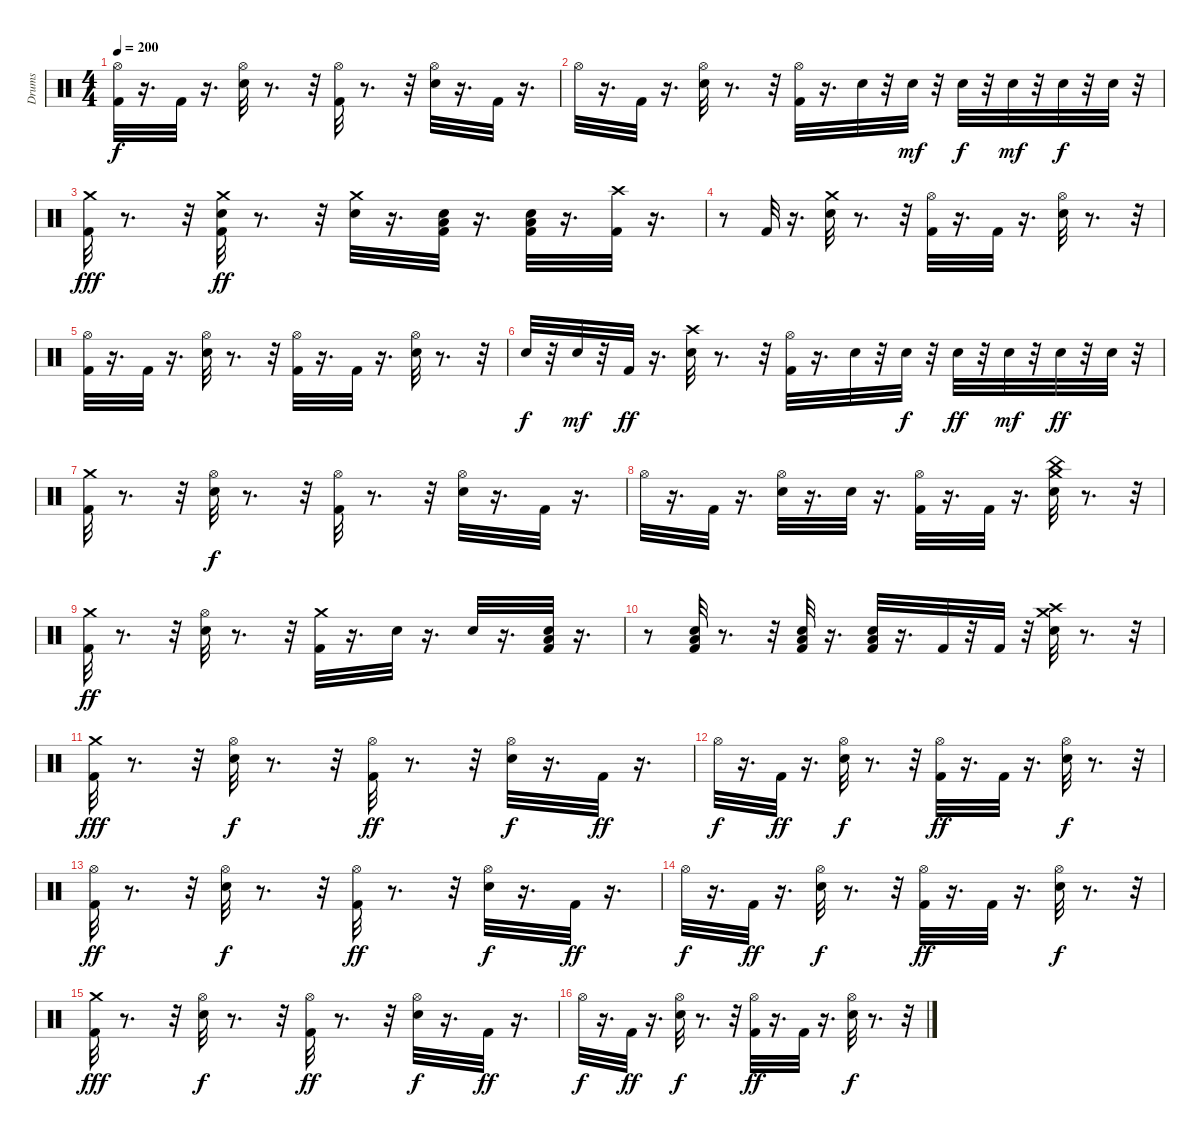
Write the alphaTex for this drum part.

\track ("Drums" "Drums") {instrument percussion}
\staff {score}
\articulation defaults
\ts (4 4)
\tempo 200
\clef neutral
\ks c
("Kick (hit) 2" "Hi-Hat (open)").32{dy f} r.16{d} "Kick (hit) 2".32 r.16{d} ("Snare (hit) 2" "Hi-Hat (open)").32 r.8{d} r.32 ("Kick (hit) 2" "Hi-Hat (open)").32 r.8{d} r.32 ("Snare (hit) 2" "Hi-Hat (open)").32 r.16{d} "Kick (hit) 2".32 r.16{d} |
"Hi-Hat (open)".32 r.16{d} "Kick (hit) 2".32 r.16{d} ("Snare (hit) 2" "Hi-Hat (open)").32 r.8{d} r.32 ("Hi-Hat (open)" "Kick (hit) 2").32 r.16{d} "Snare (hit) 2".32 r.32 "Snare (hit) 2".32{dy mf} r.32 "Snare (hit) 2".32{dy f} r.32 "Snare (hit) 2".32{dy mf} r.32 "Snare (hit) 2".32{dy f} r.32 "Snare (hit) 2".32 r.32 |
("Kick (hit) 2" "Crash medium (hit)").32{dy fff} r.8{d} r.32 ("Kick (hit) 2" "Crash medium (hit)" "Snare (hit) 2").32{dy ff} r.8{d} r.32 ("Crash medium (hit)" "Snare (hit) 2").32 r.16{d} ("Kick (hit) 2" "Low Floor Tom (hit)" "Snare (hit) 2").32 r.16{d} ("Kick (hit) 2" "Low Floor Tom (hit)" "Snare (hit) 2").32 r.16{d} ("Crash high (hit)" "Kick (hit) 2").32 r.16{d} |
r.8 "Kick (hit) 2".32 r.16{d} ("Snare (hit) 2" "Crash medium (hit)").32 r.8{d} r.32 ("Kick (hit) 2" "Hi-Hat (open)").32 r.16{d} "Kick (hit) 2".32 r.16{d} ("Snare (hit) 2" "Hi-Hat (open)").32 r.8{d} r.32 |
("Kick (hit) 2" "Hi-Hat (open)").32 r.16{d} "Kick (hit) 2".32 r.16{d} ("Snare (hit) 2" "Hi-Hat (open)").32 r.8{d} r.32 ("Hi-Hat (open)" "Kick (hit) 2").32 r.16{d} "Kick (hit) 2".32 r.16{d} ("Snare (hit) 2" "Hi-Hat (open)").32 r.8{d} r.32 |
"Snare (hit) 2".32{dy f} r.32 "Snare (hit) 2".32{dy mf} r.32 "Kick (hit) 2".32{dy ff} r.16{d} ("Crash high (hit)" "Snare (hit) 2").32 r.8{d} r.32 ("Hi-Hat (open)" "Kick (hit) 2").32 r.16{d} "Snare (hit) 2".32 r.32 "Snare (hit) 2".32{dy f} r.32 "Snare (hit) 2".32{dy ff} r.32 "Snare (hit) 2".32{dy mf} r.32 "Snare (hit) 2".32{dy ff} r.32 "Snare (hit) 2".32 r.32 |
("Crash medium (hit)" "Kick (hit) 2").32 r.8{d} r.32 ("Hi-Hat (open)" "Snare (hit) 2").32{dy f} r.8{d} r.32 ("Hi-Hat (open)" "Kick (hit) 2").32 r.8{d} r.32 ("Hi-Hat (open)" "Snare (hit) 2").32 r.16{d} "Kick (hit) 2".32 r.16{d} |
"Hi-Hat (open)".32 r.16{d} "Kick (hit) 2".32 r.16{d} ("Hi-Hat (open)" "Snare (hit) 2").32 r.16{d} "Snare (hit) 2".32 r.16{d} ("Hi-Hat (open)" "Kick (hit) 2").32 r.16{d} "Kick (hit) 2".32 r.16{d} ("Crash medium (hit)" "China (hit)" "Snare (hit) 2").32 r.8{d} r.32 |
("Crash medium (hit)" "Kick (hit) 2").32{dy ff} r.8{d} r.32 ("Hi-Hat (open)" "Snare (hit) 2").32 r.8{d} r.32 ("Crash medium (hit)" "Kick (hit) 2").32 r.16{d} "Snare (hit) 2".32 r.16{d} "Snare (hit) 2".32 r.16{d} ("Low Floor Tom (hit)" "Kick (hit) 2" "Snare (hit) 2").32 r.16{d} |
r.8 ("Low Floor Tom (hit)" "Kick (hit) 2" "Snare (hit) 2").32 r.8{d} r.32 ("Low Floor Tom (hit)" "Kick (hit) 2" "Snare (hit) 2").32 r.16{d} ("Kick (hit) 2" "Low Floor Tom (hit)" "Snare (hit) 2").32 r.16{d} "Kick (hit) 2".32 r.32 "Kick (hit) 2".32 r.32 ("Crash medium (hit)" "Crash high (hit)" "Snare (hit) 2").32 r.8{d} r.32 |
("Crash medium (hit)" "Kick (hit) 2").32{dy fff} r.8{d} r.32 ("Hi-Hat (open)" "Snare (hit) 2").32{dy f} r.8{d} r.32 ("Hi-Hat (open)" "Kick (hit) 2").32{dy ff} r.8{d} r.32 ("Hi-Hat (open)" "Snare (hit) 2").32{dy f} r.16{d} "Kick (hit) 2".32{dy ff} r.16{d} |
"Hi-Hat (open)".32{dy f} r.16{d} "Kick (hit) 2".32{dy ff} r.16{d} ("Snare (hit) 2" "Hi-Hat (open)").32{dy f} r.8{d} r.32 ("Hi-Hat (open)" "Kick (hit) 2").32{dy ff} r.16{d} "Kick (hit) 2".32 r.16{d} ("Hi-Hat (open)" "Snare (hit) 2").32{dy f} r.8{d} r.32 |
("Hi-Hat (open)" "Kick (hit) 2").32{dy ff} r.8{d} r.32 ("Hi-Hat (open)" "Snare (hit) 2").32{dy f} r.8{d} r.32 ("Hi-Hat (open)" "Kick (hit) 2").32{dy ff} r.8{d} r.32 ("Hi-Hat (open)" "Snare (hit) 2").32{dy f} r.16{d} "Kick (hit) 2".32{dy ff} r.16{d} |
"Hi-Hat (open)".32{dy f} r.16{d} "Kick (hit) 2".32{dy ff} r.16{d} ("Hi-Hat (open)" "Snare (hit) 2").32{dy f} r.8{d} r.32 ("Hi-Hat (open)" "Kick (hit) 2").32{dy ff} r.16{d} "Kick (hit) 2".32 r.16{d} ("Hi-Hat (open)" "Snare (hit) 2").32{dy f} r.8{d} r.32 |
("Crash medium (hit)" "Kick (hit) 2").32{dy fff} r.8{d} r.32 ("Hi-Hat (open)" "Snare (hit) 2").32{dy f} r.8{d} r.32 ("Hi-Hat (open)" "Kick (hit) 2").32{dy ff} r.8{d} r.32 ("Hi-Hat (open)" "Snare (hit) 2").32{dy f} r.16{d} "Kick (hit) 2".32{dy ff} r.16{d} |
"Hi-Hat (open)".32{dy f} r.16{d} "Kick (hit) 2".32{dy ff} r.16{d} ("Hi-Hat (open)" "Snare (hit) 2").32{dy f} r.8{d} r.32 ("Hi-Hat (open)" "Kick (hit) 2").32{dy ff} r.16{d} "Kick (hit) 2".32 r.16{d} ("Hi-Hat (open)" "Snare (hit) 2").32{dy f} r.8{d} r.32
